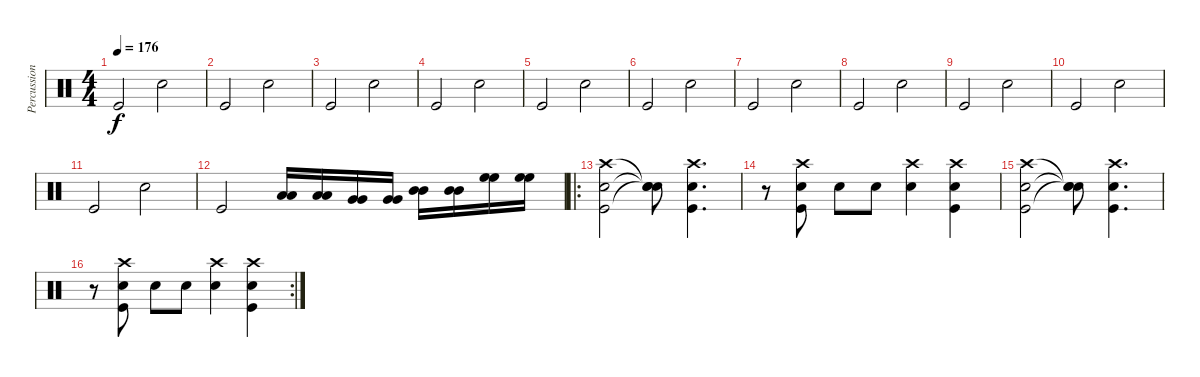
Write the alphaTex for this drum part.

\track ("Percussions" "Percussion") {instrument percussion}
\staff {score}
\articulation defaults
\ts (4 4)
\tempo 176
\clef neutral
\ks c "Kick (hit)".2{dy f} "Snare (hit) 2".2
|
"Kick (hit)".2 "Snare (hit) 2".2 |
"Kick (hit)".2 "Snare (hit) 2".2 |
"Kick (hit)".2 "Snare (hit) 2".2 |
"Kick (hit)".2 "Snare (hit) 2".2 |
"Kick (hit)".2 "Snare (hit) 2".2 |
"Kick (hit)".2 "Snare (hit) 2".2 |
"Kick (hit)".2 "Snare (hit) 2".2 |
"Kick (hit)".2 "Snare (hit) 2".2 |
"Kick (hit)".2 "Snare (hit) 2".2 |
"Kick (hit)".2 "Snare (hit) 2".2 |
"Kick (hit)".2 ("Low Tom (hit)" "Low Tom (hit)").16 ("Low Tom (hit)" "Low Tom (hit)").16 ("Very Low Tom (hit)" "Very Low Tom (hit)").16 ("Very Low Tom (hit)" "Very Low Tom (hit)").16 ("Mid Tom (hit)" "Mid Tom (hit)").16 ("Mid Tom (hit)" "Mid Tom (hit)").16 ("High Floor Tom (hit)" "High Floor Tom (hit)").16 ("High Floor Tom (hit)" "High Floor Tom (hit)").16 |
\ro
("Crash high (hit)" "Snare (hit) 2" "Kick (hit)").2 ("Snare (hit)"{t} "Snare (hit)"{t} "Snare (hit)"{t}).8 ("Crash high (hit)" "Snare (hit) 2" "Kick (hit)").4{d} |
r.8 ("Crash high (hit)" "Snare (hit) 2" "Kick (hit)").8 "Snare (hit) 2".8 "Snare (hit) 2".8 ("Crash high (hit)" "Snare (hit) 2").4 ("Crash high (hit)" "Snare (hit) 2" "Kick (hit)").4 |
("Crash high (hit)" "Snare (hit) 2" "Kick (hit)").2 ("Snare (hit)"{t} "Snare (hit)"{t} "Snare (hit)"{t}).8 ("Crash high (hit)" "Snare (hit) 2" "Kick (hit)").4{d} |
\rc 2
r.8 ("Crash high (hit)" "Snare (hit) 2" "Kick (hit)").8 "Snare (hit) 2".8 "Snare (hit) 2".8 ("Crash high (hit)" "Snare (hit) 2").4 ("Crash high (hit)" "Snare (hit) 2" "Kick (hit)").4
